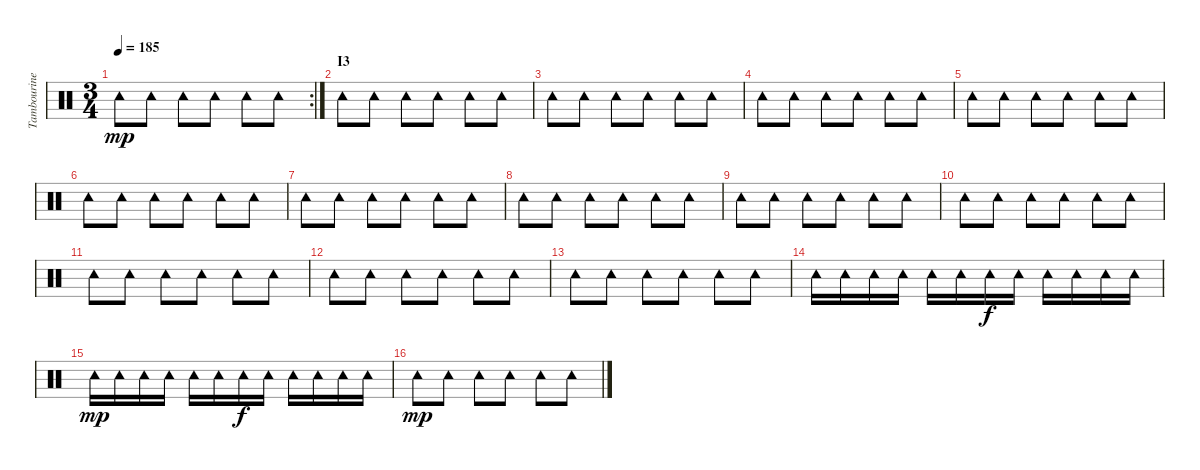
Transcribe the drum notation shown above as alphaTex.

\track ("Tambourine" "Tambourine") {instrument percussion}
\staff {score}
\articulation defaults
\rc 2
\ts (3 4)
\tempo 185
\clef neutral
\ks c "Tambourine (hit)".8{dy mp} "Tambourine (hit)".8 "Tambourine (hit)".8 "Tambourine (hit)".8 "Tambourine (hit)".8 "Tambourine (hit)".8
|
\section ("" "I3")
"Tambourine (hit)".8 "Tambourine (hit)".8 "Tambourine (hit)".8 "Tambourine (hit)".8 "Tambourine (hit)".8 "Tambourine (hit)".8 |
"Tambourine (hit)".8 "Tambourine (hit)".8 "Tambourine (hit)".8 "Tambourine (hit)".8 "Tambourine (hit)".8 "Tambourine (hit)".8 |
"Tambourine (hit)".8 "Tambourine (hit)".8 "Tambourine (hit)".8 "Tambourine (hit)".8 "Tambourine (hit)".8 "Tambourine (hit)".8 |
"Tambourine (hit)".8 "Tambourine (hit)".8 "Tambourine (hit)".8 "Tambourine (hit)".8 "Tambourine (hit)".8 "Tambourine (hit)".8 |
"Tambourine (hit)".8 "Tambourine (hit)".8 "Tambourine (hit)".8 "Tambourine (hit)".8 "Tambourine (hit)".8 "Tambourine (hit)".8 |
"Tambourine (hit)".8 "Tambourine (hit)".8 "Tambourine (hit)".8 "Tambourine (hit)".8 "Tambourine (hit)".8 "Tambourine (hit)".8 |
"Tambourine (hit)".8 "Tambourine (hit)".8 "Tambourine (hit)".8 "Tambourine (hit)".8 "Tambourine (hit)".8 "Tambourine (hit)".8 |
"Tambourine (hit)".8 "Tambourine (hit)".8 "Tambourine (hit)".8 "Tambourine (hit)".8 "Tambourine (hit)".8 "Tambourine (hit)".8 |
"Tambourine (hit)".8 "Tambourine (hit)".8 "Tambourine (hit)".8 "Tambourine (hit)".8 "Tambourine (hit)".8 "Tambourine (hit)".8 |
"Tambourine (hit)".8 "Tambourine (hit)".8 "Tambourine (hit)".8 "Tambourine (hit)".8 "Tambourine (hit)".8 "Tambourine (hit)".8 |
"Tambourine (hit)".8 "Tambourine (hit)".8 "Tambourine (hit)".8 "Tambourine (hit)".8 "Tambourine (hit)".8 "Tambourine (hit)".8 |
"Tambourine (hit)".8 "Tambourine (hit)".8 "Tambourine (hit)".8 "Tambourine (hit)".8 "Tambourine (hit)".8 "Tambourine (hit)".8 |
"Tambourine (hit)".16 "Tambourine (hit)".16 "Tambourine (hit)".16 "Tambourine (hit)".16 "Tambourine (hit)".16 "Tambourine (hit)".16 "Tambourine (hit)".16{dy f} "Tambourine (hit)".16 "Tambourine (hit)".16 "Tambourine (hit)".16 "Tambourine (hit)".16 "Tambourine (hit)".16 |
"Tambourine (hit)".16{dy mp} "Tambourine (hit)".16 "Tambourine (hit)".16 "Tambourine (hit)".16 "Tambourine (hit)".16 "Tambourine (hit)".16 "Tambourine (hit)".16{dy f} "Tambourine (hit)".16 "Tambourine (hit)".16 "Tambourine (hit)".16 "Tambourine (hit)".16 "Tambourine (hit)".16 |
"Tambourine (hit)".8{dy mp} "Tambourine (hit)".8 "Tambourine (hit)".8 "Tambourine (hit)".8 "Tambourine (hit)".8 "Tambourine (hit)".8
